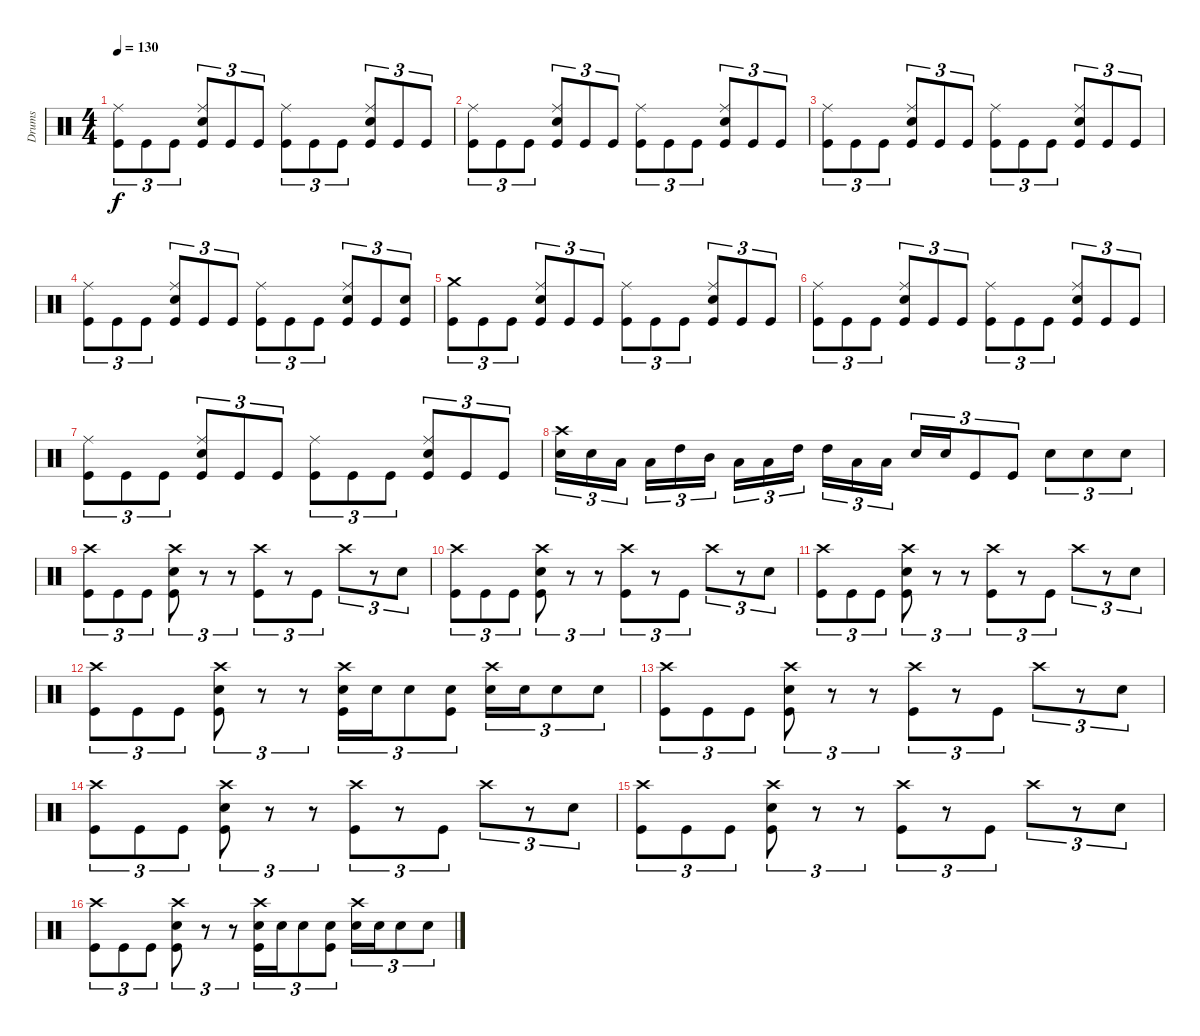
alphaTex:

\track ("Drums" "Drums") {instrument percussion}
\staff {score}
\articulation defaults
\ts (4 4)
\tempo 130
\clef neutral
\ks c
("Kick (hit)" "Ride (middle)").8{tu (3 2) dy f} "Kick (hit)".8{tu (3 2)} "Kick (hit)".8{tu (3 2)} ("Kick (hit)" "Snare (hit) 2" "Ride (middle)").8{tu (3 2)} "Kick (hit)".8{tu (3 2)} "Kick (hit)".8{tu (3 2)} ("Kick (hit)" "Ride (middle)").8{tu (3 2)} "Kick (hit)".8{tu (3 2)} "Kick (hit)".8{tu (3 2)} ("Kick (hit)" "Snare (hit) 2" "Ride (middle)").8{tu (3 2)} "Kick (hit)".8{tu (3 2)} "Kick (hit)".8{tu (3 2)} |
("Kick (hit)" "Ride (middle)").8{tu (3 2)} "Kick (hit)".8{tu (3 2)} "Kick (hit)".8{tu (3 2)} ("Kick (hit)" "Snare (hit) 2" "Ride (middle)").8{tu (3 2)} "Kick (hit)".8{tu (3 2)} "Kick (hit)".8{tu (3 2)} ("Kick (hit)" "Ride (middle)").8{tu (3 2)} "Kick (hit)".8{tu (3 2)} "Kick (hit)".8{tu (3 2)} ("Kick (hit)" "Snare (hit) 2" "Ride (middle)").8{tu (3 2)} "Kick (hit)".8{tu (3 2)} "Kick (hit)".8{tu (3 2)} |
("Kick (hit)" "Ride (middle)").8{tu (3 2)} "Kick (hit)".8{tu (3 2)} "Kick (hit)".8{tu (3 2)} ("Kick (hit)" "Snare (hit) 2" "Ride (middle)").8{tu (3 2)} "Kick (hit)".8{tu (3 2)} "Kick (hit)".8{tu (3 2)} ("Kick (hit)" "Ride (middle)").8{tu (3 2)} "Kick (hit)".8{tu (3 2)} "Kick (hit)".8{tu (3 2)} ("Kick (hit)" "Snare (hit) 2" "Ride (middle)").8{tu (3 2)} "Kick (hit)".8{tu (3 2)} "Kick (hit)".8{tu (3 2)} |
("Kick (hit)" "Ride (middle)").8{tu (3 2)} "Kick (hit)".8{tu (3 2)} "Kick (hit)".8{tu (3 2)} ("Kick (hit)" "Snare (hit) 2" "Ride (middle)").8{tu (3 2)} "Kick (hit)".8{tu (3 2)} "Kick (hit)".8{tu (3 2)} ("Kick (hit)" "Ride (middle)").8{tu (3 2)} "Kick (hit)".8{tu (3 2)} "Kick (hit)".8{tu (3 2)} ("Kick (hit)" "Snare (hit) 2" "Ride (middle)").8{tu (3 2)} "Kick (hit)".8{tu (3 2)} ("Kick (hit)" "Snare (hit) 2").8{tu (3 2)} |
("Kick (hit)" "Crash medium (hit)").8{tu (3 2)} "Kick (hit)".8{tu (3 2)} "Kick (hit)".8{tu (3 2)} ("Kick (hit)" "Snare (hit) 2" "Ride (middle)").8{tu (3 2)} "Kick (hit)".8{tu (3 2)} "Kick (hit)".8{tu (3 2)} ("Kick (hit)" "Ride (middle)").8{tu (3 2)} "Kick (hit)".8{tu (3 2)} "Kick (hit)".8{tu (3 2)} ("Kick (hit)" "Snare (hit) 2" "Ride (middle)").8{tu (3 2)} "Kick (hit)".8{tu (3 2)} "Kick (hit)".8{tu (3 2)} |
("Kick (hit)" "Ride (middle)").8{tu (3 2)} "Kick (hit)".8{tu (3 2)} "Kick (hit)".8{tu (3 2)} ("Kick (hit)" "Snare (hit) 2" "Ride (middle)").8{tu (3 2)} "Kick (hit)".8{tu (3 2)} "Kick (hit)".8{tu (3 2)} ("Kick (hit)" "Ride (middle)").8{tu (3 2)} "Kick (hit)".8{tu (3 2)} "Kick (hit)".8{tu (3 2)} ("Kick (hit)" "Snare (hit) 2" "Ride (middle)").8{tu (3 2)} "Kick (hit)".8{tu (3 2)} "Kick (hit)".8{tu (3 2)} |
("Kick (hit)" "Ride (middle)").8{tu (3 2)} "Kick (hit)".8{tu (3 2)} "Kick (hit)".8{tu (3 2)} ("Kick (hit)" "Snare (hit) 2" "Ride (middle)").8{tu (3 2)} "Kick (hit)".8{tu (3 2)} "Kick (hit)".8{tu (3 2)} ("Kick (hit)" "Ride (middle)").8{tu (3 2)} "Kick (hit)".8{tu (3 2)} "Kick (hit)".8{tu (3 2)} ("Kick (hit)" "Snare (hit) 2" "Ride (middle)").8{tu (3 2)} "Kick (hit)".8{tu (3 2)} "Kick (hit)".8{tu (3 2)} |
("Snare (hit) 2" "Crash high (hit)").16{tu (3 2)} "Snare (hit) 2".16{tu (3 2)} "Low Tom (hit)".16{tu (3 2)} "Low Tom (hit)".16{tu (3 2)} "High Tom (hit)".16{tu (3 2)} "Mid Tom (hit)".16{tu (3 2)} "Low Tom (hit)".16{tu (3 2)} "Low Tom (hit)".16{tu (3 2)} "High Tom (hit)".16{tu (3 2)} "High Tom (hit)".16{tu (3 2)} "Low Tom (hit)".16{tu (3 2)} "Low Tom (hit)".16{tu (3 2)} "Snare (hit) 2".16{tu (3 2)} "Snare (hit) 2".16{tu (3 2)} "Kick (hit)".8{tu (3 2)} "Kick (hit)".8{tu (3 2)} "Snare (hit) 2".8{tu (3 2)} "Snare (hit) 2".8{tu (3 2)} "Snare (hit) 2".8{tu (3 2)} |
("Kick (hit)" "Crash high (hit)").8{tu (3 2)} "Kick (hit)".8{tu (3 2)} "Kick (hit)".8{tu (3 2)} ("Kick (hit)" "Snare (hit) 2" "Crash high (hit)").8{tu (3 2)} r.8{tu (3 2)} r.8{tu (3 2)} ("Kick (hit)" "Crash high (hit)").8{tu (3 2)} r.8{tu (3 2)} "Kick (hit)".8{tu (3 2)} "Crash high (hit)".8{tu (3 2)} r.8{tu (3 2)} "Snare (hit) 2".8{tu (3 2)} |
("Kick (hit)" "Crash high (hit)").8{tu (3 2)} "Kick (hit)".8{tu (3 2)} "Kick (hit)".8{tu (3 2)} ("Kick (hit)" "Snare (hit) 2" "Crash high (hit)").8{tu (3 2)} r.8{tu (3 2)} r.8{tu (3 2)} ("Kick (hit)" "Crash high (hit)").8{tu (3 2)} r.8{tu (3 2)} "Kick (hit)".8{tu (3 2)} "Crash high (hit)".8{tu (3 2)} r.8{tu (3 2)} "Snare (hit) 2".8{tu (3 2)} |
("Kick (hit)" "Crash high (hit)").8{tu (3 2)} "Kick (hit)".8{tu (3 2)} "Kick (hit)".8{tu (3 2)} ("Kick (hit)" "Snare (hit) 2" "Crash high (hit)").8{tu (3 2)} r.8{tu (3 2)} r.8{tu (3 2)} ("Kick (hit)" "Crash high (hit)").8{tu (3 2)} r.8{tu (3 2)} "Kick (hit)".8{tu (3 2)} "Crash high (hit)".8{tu (3 2)} r.8{tu (3 2)} "Snare (hit) 2".8{tu (3 2)} |
("Kick (hit)" "Crash high (hit)").8{tu (3 2)} "Kick (hit)".8{tu (3 2)} "Kick (hit)".8{tu (3 2)} ("Kick (hit)" "Snare (hit) 2" "Crash high (hit)").8{tu (3 2)} r.8{tu (3 2)} r.8{tu (3 2)} ("Kick (hit)" "Snare (hit) 2" "Crash high (hit)").16{tu (3 2)} "Snare (hit) 2".16{tu (3 2)} "Snare (hit) 2".8{tu (3 2)} ("Kick (hit)" "Snare (hit) 2").8{tu (3 2)} ("Snare (hit) 2" "Crash high (hit)").16{tu (3 2)} "Snare (hit) 2".16{tu (3 2)} "Snare (hit) 2".8{tu (3 2)} "Snare (hit) 2".8{tu (3 2)} |
("Kick (hit)" "Crash high (hit)").8{tu (3 2)} "Kick (hit)".8{tu (3 2)} "Kick (hit)".8{tu (3 2)} ("Kick (hit)" "Snare (hit) 2" "Crash high (hit)").8{tu (3 2)} r.8{tu (3 2)} r.8{tu (3 2)} ("Kick (hit)" "Crash high (hit)").8{tu (3 2)} r.8{tu (3 2)} "Kick (hit)".8{tu (3 2)} "Crash high (hit)".8{tu (3 2)} r.8{tu (3 2)} "Snare (hit) 2".8{tu (3 2)} |
("Kick (hit)" "Crash high (hit)").8{tu (3 2)} "Kick (hit)".8{tu (3 2)} "Kick (hit)".8{tu (3 2)} ("Kick (hit)" "Snare (hit) 2" "Crash high (hit)").8{tu (3 2)} r.8{tu (3 2)} r.8{tu (3 2)} ("Kick (hit)" "Crash high (hit)").8{tu (3 2)} r.8{tu (3 2)} "Kick (hit)".8{tu (3 2)} "Crash high (hit)".8{tu (3 2)} r.8{tu (3 2)} "Snare (hit) 2".8{tu (3 2)} |
("Kick (hit)" "Crash high (hit)").8{tu (3 2)} "Kick (hit)".8{tu (3 2)} "Kick (hit)".8{tu (3 2)} ("Kick (hit)" "Snare (hit) 2" "Crash high (hit)").8{tu (3 2)} r.8{tu (3 2)} r.8{tu (3 2)} ("Kick (hit)" "Crash high (hit)").8{tu (3 2)} r.8{tu (3 2)} "Kick (hit)".8{tu (3 2)} "Crash high (hit)".8{tu (3 2)} r.8{tu (3 2)} "Snare (hit) 2".8{tu (3 2)} |
("Kick (hit)" "Crash high (hit)").8{tu (3 2)} "Kick (hit)".8{tu (3 2)} "Kick (hit)".8{tu (3 2)} ("Kick (hit)" "Snare (hit) 2" "Crash high (hit)").8{tu (3 2)} r.8{tu (3 2)} r.8{tu (3 2)} ("Kick (hit)" "Snare (hit) 2" "Crash high (hit)").16{tu (3 2)} "Snare (hit) 2".16{tu (3 2)} "Snare (hit) 2".8{tu (3 2)} ("Kick (hit)" "Snare (hit) 2").8{tu (3 2)} ("Snare (hit) 2" "Crash high (hit)").16{tu (3 2)} "Snare (hit) 2".16{tu (3 2)} "Snare (hit) 2".8{tu (3 2)} "Snare (hit) 2".8{tu (3 2)}
